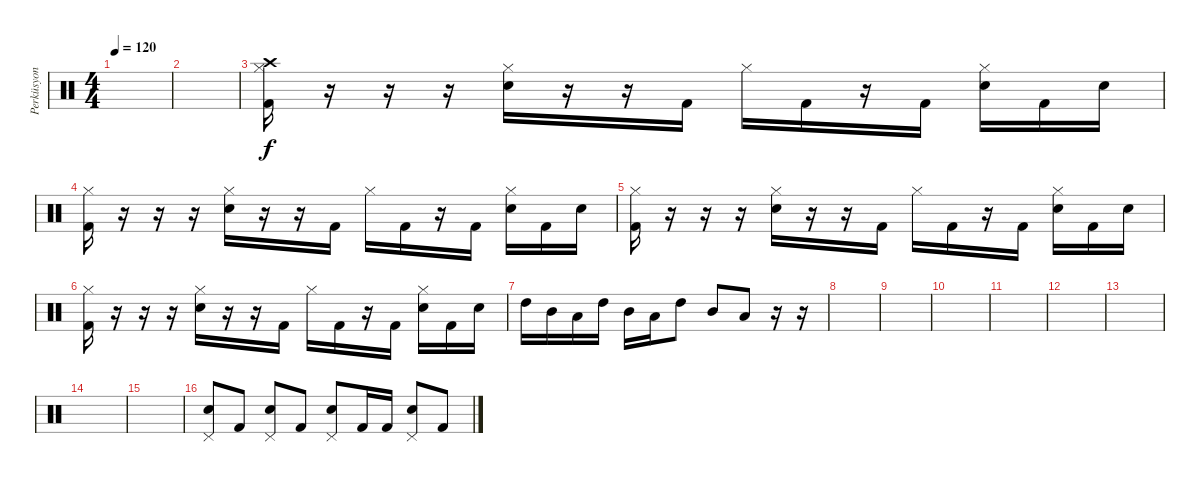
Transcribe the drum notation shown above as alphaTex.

\track ("Perküsyon" "Perküsyon") {instrument percussion}
\staff {score}
\articulation defaults
\ts (4 4)
\tempo 120
\clef neutral
\ks c
|
|
("Hi-Hat (closed)" "Crash high (hit)" "Kick (hit) 2").16 r.16 r.16 r.16 ("Hi-Hat (closed)" "Electric Snare (hit)").16 r.16 r.16 "Kick (hit) 2".16 "Hi-Hat (closed)".16 "Kick (hit) 2".16 r.16 "Kick (hit) 2".16 ("Hi-Hat (closed)" "Electric Snare (hit)").16 "Kick (hit) 2".16 "Electric Snare (hit)".16 |
("Hi-Hat (closed)" "Kick (hit) 2").16 r.16 r.16 r.16 ("Hi-Hat (closed)" "Electric Snare (hit)").16 r.16 r.16 "Kick (hit) 2".16 "Hi-Hat (closed)".16 "Kick (hit) 2".16 r.16 "Kick (hit) 2".16 ("Hi-Hat (closed)" "Electric Snare (hit)").16 "Kick (hit) 2".16 "Electric Snare (hit)".16 |
("Hi-Hat (closed)" "Kick (hit) 2").16 r.16 r.16 r.16 ("Hi-Hat (closed)" "Electric Snare (hit)").16 r.16 r.16 "Kick (hit) 2".16 "Hi-Hat (closed)".16 "Kick (hit) 2".16 r.16 "Kick (hit) 2".16 ("Hi-Hat (closed)" "Electric Snare (hit)").16 "Kick (hit) 2".16 "Electric Snare (hit)".16 |
("Hi-Hat (closed)" "Kick (hit) 2").16 r.16 r.16 r.16 ("Hi-Hat (closed)" "Electric Snare (hit)").16 r.16 r.16 "Kick (hit) 2".16 "Hi-Hat (closed)".16 "Kick (hit) 2".16 r.16 "Kick (hit) 2".16 ("Hi-Hat (closed)" "Electric Snare (hit)").16 "Kick (hit) 2".16 "Electric Snare (hit)".16 |
"High Tom (hit)".16 "Mid Tom (hit)".16 "Low Tom (hit)".16 "High Tom (hit)".16 "Mid Tom (hit)".16 "Low Tom (hit)".16 "High Tom (hit)".8 "Mid Tom (hit)".8 "Low Tom (hit)".8 r.16 r.16 |
|
|
|
|
|
|
|
|
("Pedal Hi-Hat (hit)" "Electric Snare (hit)").8 "Kick (hit) 2".8 ("Pedal Hi-Hat (hit)" "Electric Snare (hit)").8 "Kick (hit) 2".8 ("Pedal Hi-Hat (hit)" "Electric Snare (hit)").8 "Kick (hit) 2".16 "Kick (hit) 2".16 ("Pedal Hi-Hat (hit)" "Electric Snare (hit)").8 "Kick (hit) 2".8
